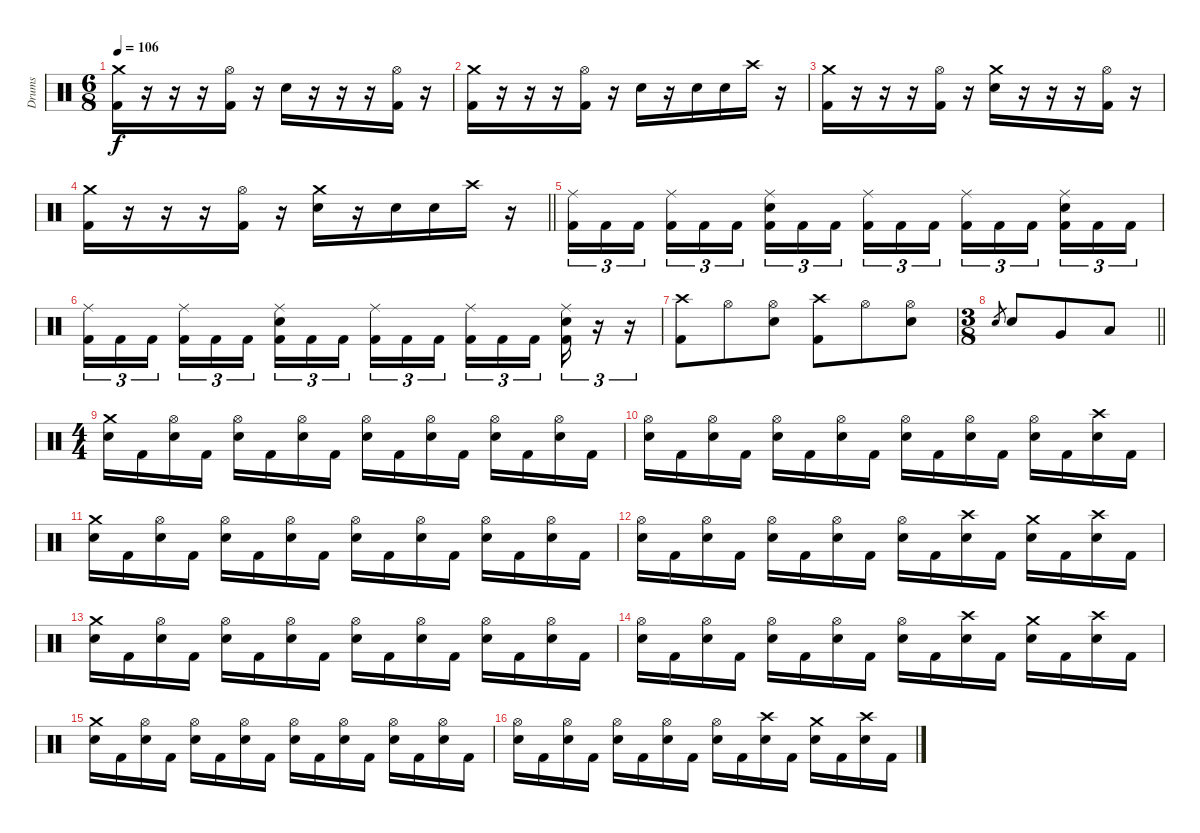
\track ("Drums" "Drums") {instrument percussion}
\staff {score}
\articulation defaults
\ts (6 8)
\section ("" "")
\tempo 106
\clef neutral
\ks aminor
("Crash medium (hit)" "Kick (hit) 2").16{dy f} r.16 r.16 r.16 ("Hi-Hat (open)" "Kick (hit) 2").16 r.16 "Electric Snare (hit)".16 r.16 r.16 r.16 ("Hi-Hat (open)" "Kick (hit) 2").16 r.16 |
("Crash medium (hit)" "Kick (hit) 2").16 r.16 r.16 r.16 ("Hi-Hat (open)" "Kick (hit) 2").16 r.16 "Electric Snare (hit)".16 r.16 "Electric Snare (hit)".16 "Electric Snare (hit)".16 "Crash high (hit)".16 r.16 |
("Crash medium (hit)" "Kick (hit) 2").16 r.16 r.16 r.16 ("Hi-Hat (open)" "Kick (hit) 2").16 r.16 ("Crash medium (hit)" "Electric Snare (hit)").16 r.16 r.16 r.16 ("Hi-Hat (open)" "Kick (hit) 2").16 r.16 |
\barLineRight lightlight
("Crash medium (hit)" "Kick (hit) 2").16 r.16 r.16 r.16 ("Hi-Hat (open)" "Kick (hit) 2").16 r.16 ("Crash medium (hit)" "Electric Snare (hit)").16 r.16 "Electric Snare (hit)".16 "Electric Snare (hit)".16 "Crash high (hit)".16 r.16 |
\section ("" "")
("Ride (middle)" "Kick (hit) 2").16{tu (3 2)} "Kick (hit) 2".16{tu (3 2)} "Kick (hit) 2".16{tu (3 2)} ("Ride (middle)" "Kick (hit) 2").16{tu (3 2)} "Kick (hit) 2".16{tu (3 2)} "Kick (hit) 2".16{tu (3 2)} ("Ride (middle)" "Electric Snare (hit)" "Kick (hit) 2").16{tu (3 2)} "Kick (hit) 2".16{tu (3 2)} "Kick (hit) 2".16{tu (3 2)} ("Ride (middle)" "Kick (hit) 2").16{tu (3 2)} "Kick (hit) 2".16{tu (3 2)} "Kick (hit) 2".16{tu (3 2)} ("Ride (middle)" "Kick (hit) 2").16{tu (3 2)} "Kick (hit) 2".16{tu (3 2)} "Kick (hit) 2".16{tu (3 2)} ("Ride (middle)" "Electric Snare (hit)" "Kick (hit) 2").16{tu (3 2)} "Kick (hit) 2".16{tu (3 2)} "Kick (hit) 2".16{tu (3 2)} |
("Ride (middle)" "Kick (hit) 2").16{tu (3 2)} "Kick (hit) 2".16{tu (3 2)} "Kick (hit) 2".16{tu (3 2)} ("Ride (middle)" "Kick (hit) 2").16{tu (3 2)} "Kick (hit) 2".16{tu (3 2)} "Kick (hit) 2".16{tu (3 2)} ("Ride (middle)" "Electric Snare (hit)" "Kick (hit) 2").16{tu (3 2)} "Kick (hit) 2".16{tu (3 2)} "Kick (hit) 2".16{tu (3 2)} ("Ride (middle)" "Kick (hit) 2").16{tu (3 2)} "Kick (hit) 2".16{tu (3 2)} "Kick (hit) 2".16{tu (3 2)} ("Ride (middle)" "Kick (hit) 2").16{tu (3 2)} "Kick (hit) 2".16{tu (3 2)} "Kick (hit) 2".16{tu (3 2)} ("Ride (middle)" "Electric Snare (hit)" "Kick (hit) 2").16{tu (3 2)} r.16{tu (3 2)} r.16{tu (3 2)} |
("Crash high (hit)" "Kick (hit) 2").8 "Hi-Hat (open)".8 ("Hi-Hat (open)" "Electric Snare (hit)").8 ("Crash high (hit)" "Kick (hit) 2").8 "Hi-Hat (open)".8 ("Hi-Hat (open)" "Electric Snare (hit)").8 |
\ts (3 8)
\barLineRight lightlight "Electric Snare (hit)".8{gr} "Electric Snare (hit)".8 "Very Low Tom (hit)".8 "Low Floor Tom (hit)".8
|
\ts (4 4)
\section ("" "")
("Crash medium (hit)" "Electric Snare (hit)").16 "Kick (hit) 2".16 ("Hi-Hat (open)" "Electric Snare (hit)").16 "Kick (hit) 2".16 ("Hi-Hat (open)" "Electric Snare (hit)").16 "Kick (hit) 2".16 ("Hi-Hat (open)" "Electric Snare (hit)").16 "Kick (hit) 2".16 ("Hi-Hat (open)" "Electric Snare (hit)").16 "Kick (hit) 2".16 ("Hi-Hat (open)" "Electric Snare (hit)").16 "Kick (hit) 2".16 ("Hi-Hat (open)" "Electric Snare (hit)").16 "Kick (hit) 2".16 ("Hi-Hat (open)" "Electric Snare (hit)").16 "Kick (hit) 2".16 |
("Hi-Hat (open)" "Electric Snare (hit)").16 "Kick (hit) 2".16 ("Hi-Hat (open)" "Electric Snare (hit)").16 "Kick (hit) 2".16 ("Hi-Hat (open)" "Electric Snare (hit)").16 "Kick (hit) 2".16 ("Hi-Hat (open)" "Electric Snare (hit)").16 "Kick (hit) 2".16 ("Hi-Hat (open)" "Electric Snare (hit)").16 "Kick (hit) 2".16 ("Hi-Hat (open)" "Electric Snare (hit)").16 "Kick (hit) 2".16 ("Hi-Hat (open)" "Electric Snare (hit)").16 "Kick (hit) 2".16 ("Crash high (hit)" "Electric Snare (hit)").16 "Kick (hit) 2".16 |
("Crash medium (hit)" "Electric Snare (hit)").16 "Kick (hit) 2".16 ("Hi-Hat (open)" "Electric Snare (hit)").16 "Kick (hit) 2".16 ("Hi-Hat (open)" "Electric Snare (hit)").16 "Kick (hit) 2".16 ("Hi-Hat (open)" "Electric Snare (hit)").16 "Kick (hit) 2".16 ("Hi-Hat (open)" "Electric Snare (hit)").16 "Kick (hit) 2".16 ("Hi-Hat (open)" "Electric Snare (hit)").16 "Kick (hit) 2".16 ("Hi-Hat (open)" "Electric Snare (hit)").16 "Kick (hit) 2".16 ("Hi-Hat (open)" "Electric Snare (hit)").16 "Kick (hit) 2".16 |
("Hi-Hat (open)" "Electric Snare (hit)").16 "Kick (hit) 2".16 ("Hi-Hat (open)" "Electric Snare (hit)").16 "Kick (hit) 2".16 ("Hi-Hat (open)" "Electric Snare (hit)").16 "Kick (hit) 2".16 ("Hi-Hat (open)" "Electric Snare (hit)").16 "Kick (hit) 2".16 ("Hi-Hat (open)" "Electric Snare (hit)").16 "Kick (hit) 2".16 ("Crash high (hit)" "Electric Snare (hit)").16 "Kick (hit) 2".16 ("Crash medium (hit)" "Electric Snare (hit)").16 "Kick (hit) 2".16 ("Crash high (hit)" "Electric Snare (hit)").16 "Kick (hit) 2".16 |
("Crash medium (hit)" "Electric Snare (hit)").16 "Kick (hit) 2".16 ("Hi-Hat (open)" "Electric Snare (hit)").16 "Kick (hit) 2".16 ("Hi-Hat (open)" "Electric Snare (hit)").16 "Kick (hit) 2".16 ("Hi-Hat (open)" "Electric Snare (hit)").16 "Kick (hit) 2".16 ("Hi-Hat (open)" "Electric Snare (hit)").16 "Kick (hit) 2".16 ("Hi-Hat (open)" "Electric Snare (hit)").16 "Kick (hit) 2".16 ("Hi-Hat (open)" "Electric Snare (hit)").16 "Kick (hit) 2".16 ("Hi-Hat (open)" "Electric Snare (hit)").16 "Kick (hit) 2".16 |
("Hi-Hat (open)" "Electric Snare (hit)").16 "Kick (hit) 2".16 ("Hi-Hat (open)" "Electric Snare (hit)").16 "Kick (hit) 2".16 ("Hi-Hat (open)" "Electric Snare (hit)").16 "Kick (hit) 2".16 ("Hi-Hat (open)" "Electric Snare (hit)").16 "Kick (hit) 2".16 ("Hi-Hat (open)" "Electric Snare (hit)").16 "Kick (hit) 2".16 ("Crash high (hit)" "Electric Snare (hit)").16 "Kick (hit) 2".16 ("Crash medium (hit)" "Electric Snare (hit)").16 "Kick (hit) 2".16 ("Crash high (hit)" "Electric Snare (hit)").16 "Kick (hit) 2".16 |
("Crash medium (hit)" "Electric Snare (hit)").16 "Kick (hit) 2".16 ("Hi-Hat (open)" "Electric Snare (hit)").16 "Kick (hit) 2".16 ("Hi-Hat (open)" "Electric Snare (hit)").16 "Kick (hit) 2".16 ("Hi-Hat (open)" "Electric Snare (hit)").16 "Kick (hit) 2".16 ("Hi-Hat (open)" "Electric Snare (hit)").16 "Kick (hit) 2".16 ("Hi-Hat (open)" "Electric Snare (hit)").16 "Kick (hit) 2".16 ("Hi-Hat (open)" "Electric Snare (hit)").16 "Kick (hit) 2".16 ("Hi-Hat (open)" "Electric Snare (hit)").16 "Kick (hit) 2".16 |
("Hi-Hat (open)" "Electric Snare (hit)").16 "Kick (hit) 2".16 ("Hi-Hat (open)" "Electric Snare (hit)").16 "Kick (hit) 2".16 ("Hi-Hat (open)" "Electric Snare (hit)").16 "Kick (hit) 2".16 ("Hi-Hat (open)" "Electric Snare (hit)").16 "Kick (hit) 2".16 ("Hi-Hat (open)" "Electric Snare (hit)").16 "Kick (hit) 2".16 ("Crash high (hit)" "Electric Snare (hit)").16 "Kick (hit) 2".16 ("Crash medium (hit)" "Electric Snare (hit)").16 "Kick (hit) 2".16 ("Crash high (hit)" "Electric Snare (hit)").16 "Kick (hit) 2".16
